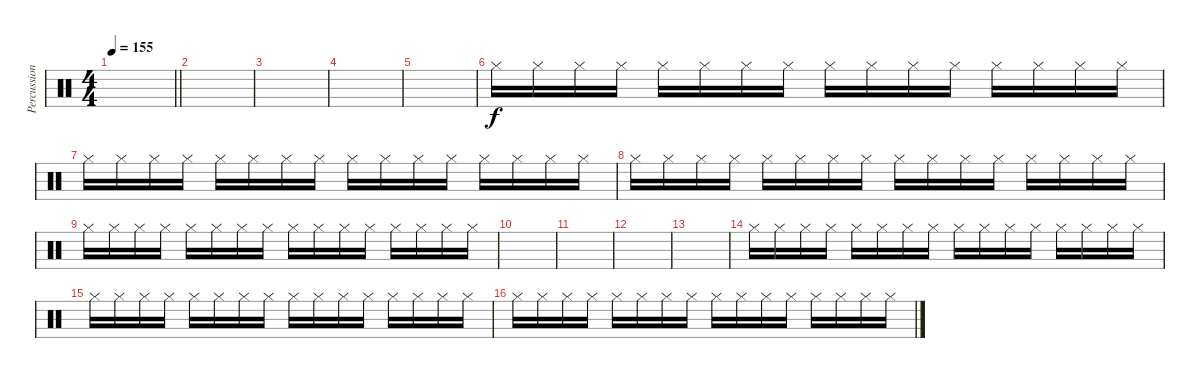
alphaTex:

\track ("Percussion Overdub" "Percussion") {instrument percussion}
\staff
\articulation defaults
\ts (4 4)
\tempo 155
\clef neutral
\barLineRight lightlight
\ks c
|
|
|
|
|
"Hi-Hat (closed)".16 "Hi-Hat (closed)".16 "Hi-Hat (closed)".16 "Hi-Hat (closed)".16 "Hi-Hat (closed)".16 "Hi-Hat (closed)".16 "Hi-Hat (closed)".16 "Hi-Hat (closed)".16 "Hi-Hat (closed)".16 "Hi-Hat (closed)".16 "Hi-Hat (closed)".16 "Hi-Hat (closed)".16 "Hi-Hat (closed)".16 "Hi-Hat (closed)".16 "Hi-Hat (closed)".16 "Hi-Hat (closed)".16 |
"Hi-Hat (closed)".16 "Hi-Hat (closed)".16 "Hi-Hat (closed)".16 "Hi-Hat (closed)".16 "Hi-Hat (closed)".16 "Hi-Hat (closed)".16 "Hi-Hat (closed)".16 "Hi-Hat (closed)".16 "Hi-Hat (closed)".16 "Hi-Hat (closed)".16 "Hi-Hat (closed)".16 "Hi-Hat (closed)".16 "Hi-Hat (closed)".16 "Hi-Hat (closed)".16 "Hi-Hat (closed)".16 "Hi-Hat (closed)".16 |
"Hi-Hat (closed)".16 "Hi-Hat (closed)".16 "Hi-Hat (closed)".16 "Hi-Hat (closed)".16 "Hi-Hat (closed)".16 "Hi-Hat (closed)".16 "Hi-Hat (closed)".16 "Hi-Hat (closed)".16 "Hi-Hat (closed)".16 "Hi-Hat (closed)".16 "Hi-Hat (closed)".16 "Hi-Hat (closed)".16 "Hi-Hat (closed)".16 "Hi-Hat (closed)".16 "Hi-Hat (closed)".16 "Hi-Hat (closed)".16 |
"Hi-Hat (closed)".16 "Hi-Hat (closed)".16 "Hi-Hat (closed)".16 "Hi-Hat (closed)".16 "Hi-Hat (closed)".16 "Hi-Hat (closed)".16 "Hi-Hat (closed)".16 "Hi-Hat (closed)".16 "Hi-Hat (closed)".16 "Hi-Hat (closed)".16 "Hi-Hat (closed)".16 "Hi-Hat (closed)".16 "Hi-Hat (closed)".16 "Hi-Hat (closed)".16 "Hi-Hat (closed)".16 "Hi-Hat (closed)".16 |
|
|
|
|
"Hi-Hat (closed)".16 "Hi-Hat (closed)".16 "Hi-Hat (closed)".16 "Hi-Hat (closed)".16 "Hi-Hat (closed)".16 "Hi-Hat (closed)".16 "Hi-Hat (closed)".16 "Hi-Hat (closed)".16 "Hi-Hat (closed)".16 "Hi-Hat (closed)".16 "Hi-Hat (closed)".16 "Hi-Hat (closed)".16 "Hi-Hat (closed)".16 "Hi-Hat (closed)".16 "Hi-Hat (closed)".16 "Hi-Hat (closed)".16 |
"Hi-Hat (closed)".16 "Hi-Hat (closed)".16 "Hi-Hat (closed)".16 "Hi-Hat (closed)".16 "Hi-Hat (closed)".16 "Hi-Hat (closed)".16 "Hi-Hat (closed)".16 "Hi-Hat (closed)".16 "Hi-Hat (closed)".16 "Hi-Hat (closed)".16 "Hi-Hat (closed)".16 "Hi-Hat (closed)".16 "Hi-Hat (closed)".16 "Hi-Hat (closed)".16 "Hi-Hat (closed)".16 "Hi-Hat (closed)".16 |
"Hi-Hat (closed)".16 "Hi-Hat (closed)".16 "Hi-Hat (closed)".16 "Hi-Hat (closed)".16 "Hi-Hat (closed)".16 "Hi-Hat (closed)".16 "Hi-Hat (closed)".16 "Hi-Hat (closed)".16 "Hi-Hat (closed)".16 "Hi-Hat (closed)".16 "Hi-Hat (closed)".16 "Hi-Hat (closed)".16 "Hi-Hat (closed)".16 "Hi-Hat (closed)".16 "Hi-Hat (closed)".16 "Hi-Hat (closed)".16
